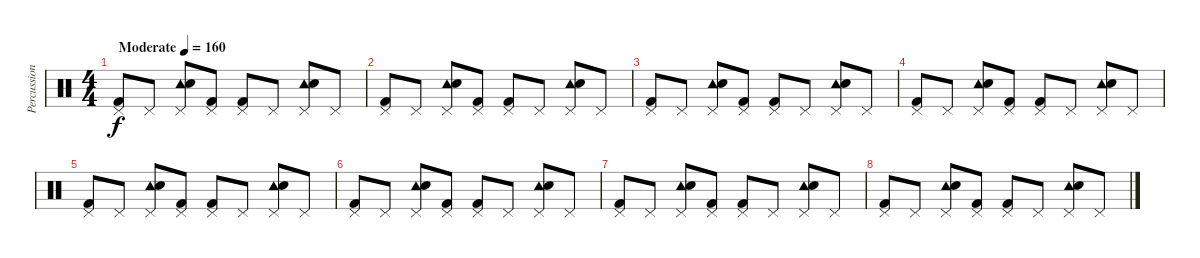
\track ("Percussion" "Percussion") {instrument percussion}
\staff {score}
\articulation defaults
\ts (4 4)
\tempo (160 "Moderate")
\clef neutral
\ks c
("Pedal Hi-Hat (hit)" "Kick (hit) 2").8{dy f} "Pedal Hi-Hat (hit)".8 ("Pedal Hi-Hat (hit)" "Tambourine (hit)" "Snare (hit) 2").8 ("Pedal Hi-Hat (hit)" "Kick (hit) 2").8 ("Pedal Hi-Hat (hit)" "Kick (hit) 2").8 "Pedal Hi-Hat (hit)".8 ("Pedal Hi-Hat (hit)" "Tambourine (hit)" "Snare (hit) 2").8 "Pedal Hi-Hat (hit)".8 |
("Pedal Hi-Hat (hit)" "Kick (hit) 2").8 "Pedal Hi-Hat (hit)".8 ("Pedal Hi-Hat (hit)" "Tambourine (hit)" "Snare (hit) 2").8 ("Pedal Hi-Hat (hit)" "Kick (hit) 2").8 ("Pedal Hi-Hat (hit)" "Kick (hit) 2").8 "Pedal Hi-Hat (hit)".8 ("Pedal Hi-Hat (hit)" "Tambourine (hit)" "Snare (hit) 2").8 "Pedal Hi-Hat (hit)".8 |
("Pedal Hi-Hat (hit)" "Kick (hit) 2").8 "Pedal Hi-Hat (hit)".8 ("Pedal Hi-Hat (hit)" "Tambourine (hit)" "Snare (hit) 2").8 ("Pedal Hi-Hat (hit)" "Kick (hit) 2").8 ("Pedal Hi-Hat (hit)" "Kick (hit) 2").8 "Pedal Hi-Hat (hit)".8 ("Pedal Hi-Hat (hit)" "Tambourine (hit)" "Snare (hit) 2").8 "Pedal Hi-Hat (hit)".8 |
("Pedal Hi-Hat (hit)" "Kick (hit) 2").8 "Pedal Hi-Hat (hit)".8 ("Pedal Hi-Hat (hit)" "Tambourine (hit)" "Snare (hit) 2").8 ("Pedal Hi-Hat (hit)" "Kick (hit) 2").8 ("Pedal Hi-Hat (hit)" "Kick (hit) 2").8 "Pedal Hi-Hat (hit)".8 ("Pedal Hi-Hat (hit)" "Tambourine (hit)" "Snare (hit) 2").8 "Pedal Hi-Hat (hit)".8 |
("Pedal Hi-Hat (hit)" "Kick (hit) 2").8 "Pedal Hi-Hat (hit)".8 ("Pedal Hi-Hat (hit)" "Tambourine (hit)" "Snare (hit) 2").8 ("Pedal Hi-Hat (hit)" "Kick (hit) 2").8 ("Pedal Hi-Hat (hit)" "Kick (hit) 2").8 "Pedal Hi-Hat (hit)".8 ("Pedal Hi-Hat (hit)" "Tambourine (hit)" "Snare (hit) 2").8 "Pedal Hi-Hat (hit)".8 |
("Pedal Hi-Hat (hit)" "Kick (hit) 2").8 "Pedal Hi-Hat (hit)".8 ("Pedal Hi-Hat (hit)" "Tambourine (hit)" "Snare (hit) 2").8 ("Pedal Hi-Hat (hit)" "Kick (hit) 2").8 ("Pedal Hi-Hat (hit)" "Kick (hit) 2").8 "Pedal Hi-Hat (hit)".8 ("Pedal Hi-Hat (hit)" "Tambourine (hit)" "Snare (hit) 2").8 "Pedal Hi-Hat (hit)".8 |
("Pedal Hi-Hat (hit)" "Kick (hit) 2").8 "Pedal Hi-Hat (hit)".8 ("Pedal Hi-Hat (hit)" "Tambourine (hit)" "Snare (hit) 2").8 ("Pedal Hi-Hat (hit)" "Kick (hit) 2").8 ("Pedal Hi-Hat (hit)" "Kick (hit) 2").8 "Pedal Hi-Hat (hit)".8 ("Pedal Hi-Hat (hit)" "Tambourine (hit)" "Snare (hit) 2").8 "Pedal Hi-Hat (hit)".8 |
("Pedal Hi-Hat (hit)" "Kick (hit) 2").8 "Pedal Hi-Hat (hit)".8 ("Pedal Hi-Hat (hit)" "Tambourine (hit)" "Snare (hit) 2").8 ("Pedal Hi-Hat (hit)" "Kick (hit) 2").8 ("Pedal Hi-Hat (hit)" "Kick (hit) 2").8 "Pedal Hi-Hat (hit)".8 ("Pedal Hi-Hat (hit)" "Tambourine (hit)" "Snare (hit) 2").8 "Pedal Hi-Hat (hit)".8
